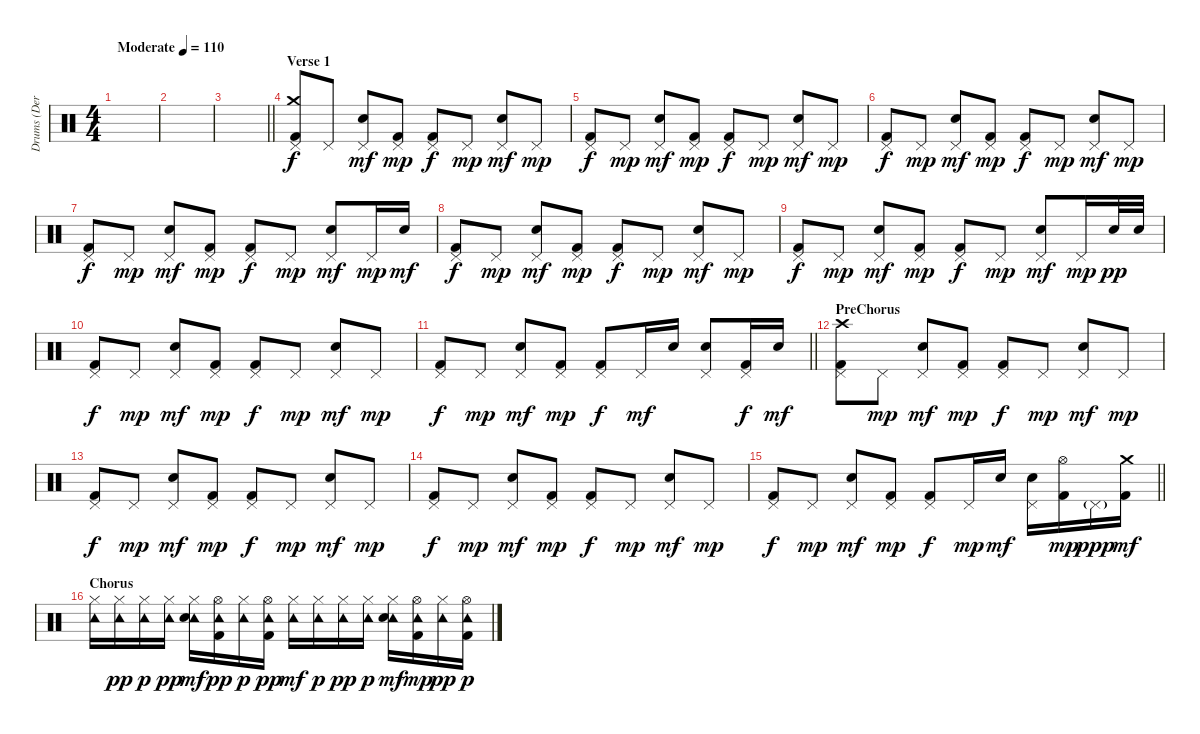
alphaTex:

\track ("Drums (Derrick McKenzie)" "Drums (Der") {instrument percussion}
\staff {score}
\articulation defaults
\ts (4 4)
\tempo (110 "Moderate")
\clef neutral
\ks c
|
|
\barLineRight lightlight
|
\section ("" "Verse 1")
("Pedal Hi-Hat (hit)" "Crash medium (hit)" "Kick (hit) 2").8 "Pedal Hi-Hat (hit)".8 ("Pedal Hi-Hat (hit)" "Electric Snare (hit)").8{dy mf} ("Pedal Hi-Hat (hit)" "Kick (hit) 2").8{dy mp} ("Pedal Hi-Hat (hit)" "Kick (hit) 2").8{dy f} "Pedal Hi-Hat (hit)".8{dy mp} ("Pedal Hi-Hat (hit)" "Electric Snare (hit)").8{dy mf} "Pedal Hi-Hat (hit)".8{dy mp} |
("Pedal Hi-Hat (hit)" "Kick (hit) 2").8{dy f} "Pedal Hi-Hat (hit)".8{dy mp} ("Pedal Hi-Hat (hit)" "Electric Snare (hit)").8{dy mf} ("Pedal Hi-Hat (hit)" "Kick (hit) 2").8{dy mp} ("Pedal Hi-Hat (hit)" "Kick (hit) 2").8{dy f} "Pedal Hi-Hat (hit)".8{dy mp} ("Pedal Hi-Hat (hit)" "Electric Snare (hit)").8{dy mf} "Pedal Hi-Hat (hit)".8{dy mp} |
("Pedal Hi-Hat (hit)" "Kick (hit) 2").8{dy f} "Pedal Hi-Hat (hit)".8{dy mp} ("Pedal Hi-Hat (hit)" "Electric Snare (hit)").8{dy mf} ("Pedal Hi-Hat (hit)" "Kick (hit) 2").8{dy mp} ("Pedal Hi-Hat (hit)" "Kick (hit) 2").8{dy f} "Pedal Hi-Hat (hit)".8{dy mp} ("Pedal Hi-Hat (hit)" "Electric Snare (hit)").8{dy mf} "Pedal Hi-Hat (hit)".8{dy mp} |
("Pedal Hi-Hat (hit)" "Kick (hit) 2").8{dy f} "Pedal Hi-Hat (hit)".8{dy mp} ("Pedal Hi-Hat (hit)" "Electric Snare (hit)").8{dy mf} ("Pedal Hi-Hat (hit)" "Kick (hit) 2").8{dy mp} ("Pedal Hi-Hat (hit)" "Kick (hit) 2").8{dy f} "Pedal Hi-Hat (hit)".8{dy mp} ("Pedal Hi-Hat (hit)" "Electric Snare (hit)").8{dy mf} "Pedal Hi-Hat (hit)".16{dy mp} "Electric Snare (hit)".16{dy mf} |
("Pedal Hi-Hat (hit)" "Kick (hit) 2").8{dy f} "Pedal Hi-Hat (hit)".8{dy mp} ("Pedal Hi-Hat (hit)" "Electric Snare (hit)").8{dy mf} ("Pedal Hi-Hat (hit)" "Kick (hit) 2").8{dy mp} ("Pedal Hi-Hat (hit)" "Kick (hit) 2").8{dy f} "Pedal Hi-Hat (hit)".8{dy mp} ("Pedal Hi-Hat (hit)" "Electric Snare (hit)").8{dy mf} "Pedal Hi-Hat (hit)".8{dy mp} |
("Pedal Hi-Hat (hit)" "Kick (hit) 2").8{dy f} "Pedal Hi-Hat (hit)".8{dy mp} ("Pedal Hi-Hat (hit)" "Electric Snare (hit)").8{dy mf} ("Pedal Hi-Hat (hit)" "Kick (hit) 2").8{dy mp} ("Pedal Hi-Hat (hit)" "Kick (hit) 2").8{dy f} "Pedal Hi-Hat (hit)".8{dy mp} ("Pedal Hi-Hat (hit)" "Electric Snare (hit)").8{dy mf} "Pedal Hi-Hat (hit)".16{dy mp} "Electric Snare (hit)".32{dy pp} "Electric Snare (hit)".32 |
("Pedal Hi-Hat (hit)" "Kick (hit) 2").8{dy f} "Pedal Hi-Hat (hit)".8{dy mp} ("Pedal Hi-Hat (hit)" "Electric Snare (hit)").8{dy mf} ("Pedal Hi-Hat (hit)" "Kick (hit) 2").8{dy mp} ("Pedal Hi-Hat (hit)" "Kick (hit) 2").8{dy f} "Pedal Hi-Hat (hit)".8{dy mp} ("Pedal Hi-Hat (hit)" "Electric Snare (hit)").8{dy mf} "Pedal Hi-Hat (hit)".8{dy mp} |
\barLineRight lightlight
("Pedal Hi-Hat (hit)" "Kick (hit) 2").8{dy f} "Pedal Hi-Hat (hit)".8{dy mp} ("Pedal Hi-Hat (hit)" "Electric Snare (hit)").8{dy mf} ("Pedal Hi-Hat (hit)" "Kick (hit) 2").8{dy mp} ("Pedal Hi-Hat (hit)" "Kick (hit) 2").8{dy f} "Pedal Hi-Hat (hit)".16{dy mf} "Electric Snare (hit)".16 ("Pedal Hi-Hat (hit)" "Electric Snare (hit)").8 ("Pedal Hi-Hat (hit)" "Kick (hit) 2").16{dy f} "Electric Snare (hit)".16{dy mf} |
\section ("" "PreChorus")
("Pedal Hi-Hat (hit)" "Crash high (hit)" "Kick (hit) 2").8 "Pedal Hi-Hat (hit)".8{dy mp} ("Pedal Hi-Hat (hit)" "Electric Snare (hit)").8{dy mf} ("Pedal Hi-Hat (hit)" "Kick (hit) 2").8{dy mp} ("Pedal Hi-Hat (hit)" "Kick (hit) 2").8{dy f} "Pedal Hi-Hat (hit)".8{dy mp} ("Pedal Hi-Hat (hit)" "Electric Snare (hit)").8{dy mf} "Pedal Hi-Hat (hit)".8{dy mp} |
("Pedal Hi-Hat (hit)" "Kick (hit) 2").8{dy f} "Pedal Hi-Hat (hit)".8{dy mp} ("Pedal Hi-Hat (hit)" "Electric Snare (hit)").8{dy mf} ("Pedal Hi-Hat (hit)" "Kick (hit) 2").8{dy mp} ("Pedal Hi-Hat (hit)" "Kick (hit) 2").8{dy f} "Pedal Hi-Hat (hit)".8{dy mp} ("Pedal Hi-Hat (hit)" "Electric Snare (hit)").8{dy mf} "Pedal Hi-Hat (hit)".8{dy mp} |
("Pedal Hi-Hat (hit)" "Kick (hit) 2").8{dy f} "Pedal Hi-Hat (hit)".8{dy mp} ("Pedal Hi-Hat (hit)" "Electric Snare (hit)").8{dy mf} ("Pedal Hi-Hat (hit)" "Kick (hit) 2").8{dy mp} ("Pedal Hi-Hat (hit)" "Kick (hit) 2").8{dy f} "Pedal Hi-Hat (hit)".8{dy mp} ("Pedal Hi-Hat (hit)" "Electric Snare (hit)").8{dy mf} "Pedal Hi-Hat (hit)".8{dy mp} |
\barLineRight lightlight
("Pedal Hi-Hat (hit)" "Kick (hit) 2").8{dy f} "Pedal Hi-Hat (hit)".8{dy mp} ("Pedal Hi-Hat (hit)" "Electric Snare (hit)").8{dy mf} ("Pedal Hi-Hat (hit)" "Kick (hit) 2").8{dy mp} ("Pedal Hi-Hat (hit)" "Kick (hit) 2").8{dy f} "Pedal Hi-Hat (hit)".16{dy mp} "Electric Snare (hit)".16{dy mf} ("Pedal Hi-Hat (hit)" "Electric Snare (hit)").16 ("Hi-Hat (open)" "Kick (hit) 2").16{dy mp} "Pedal Hi-Hat (hit)"{g}.16{dy ppp} ("Crash medium (hit)" "Kick (hit) 2").16{dy mf} |
\section ("" "Chorus")
("Hi-Hat (closed)" "Tambourine (hit)").16 ("Hi-Hat (closed)" "Tambourine (hit)").16{dy pp} ("Hi-Hat (closed)" "Tambourine (hit)").16{dy p} ("Hi-Hat (closed)" "Tambourine (hit)").16{dy pp} ("Hi-Hat (closed)" "Tambourine (hit)" "Electric Snare (hit)").16{dy mf} ("Hi-Hat (open)" "Tambourine (hit)" "Kick (hit) 2").16{dy pp} ("Hi-Hat (closed)" "Tambourine (hit)").16{dy p} ("Hi-Hat (open)" "Tambourine (hit)" "Kick (hit) 2").16{dy pp} ("Hi-Hat (closed)" "Tambourine (hit)").16{dy mf} ("Hi-Hat (closed)" "Tambourine (hit)").16{dy p} ("Hi-Hat (closed)" "Tambourine (hit)").16{dy pp} ("Hi-Hat (closed)" "Tambourine (hit)").16{dy p} ("Hi-Hat (closed)" "Tambourine (hit)" "Electric Snare (hit)").16{dy mf} ("Hi-Hat (open)" "Tambourine (hit)" "Kick (hit) 2").16{dy mp} ("Hi-Hat (closed)" "Tambourine (hit)").16{dy pp} ("Hi-Hat (open)" "Tambourine (hit)" "Kick (hit) 2").16{dy p}
